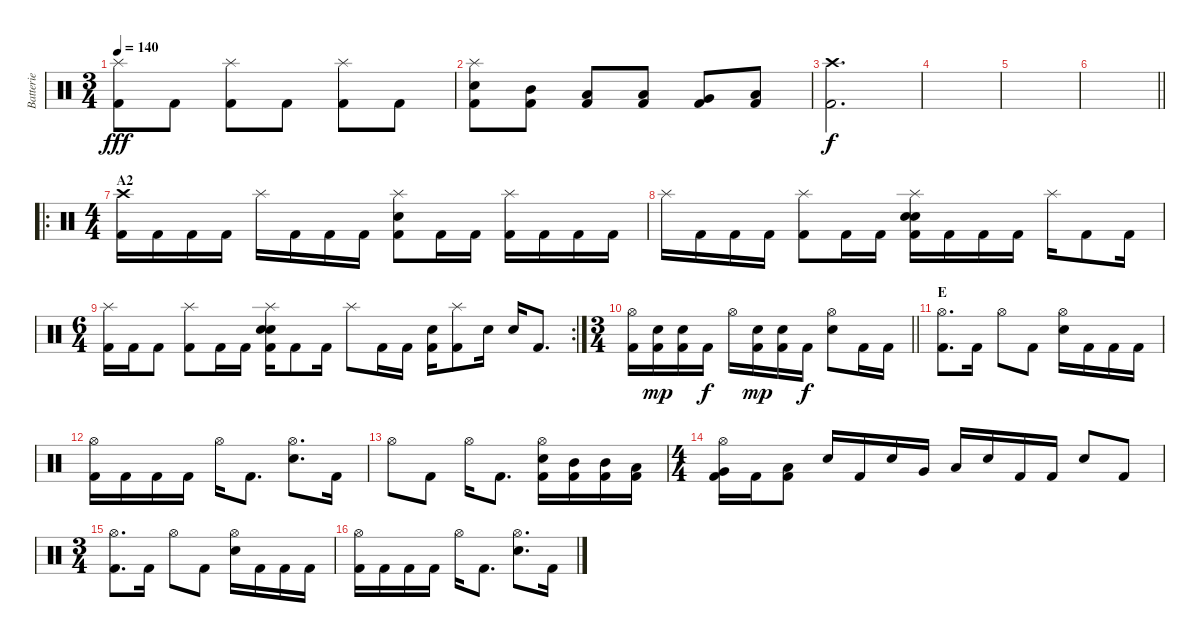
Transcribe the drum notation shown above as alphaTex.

\track ("Batterie" "Batterie") {instrument percussion}
\staff {score}
\articulation defaults
\ts (3 4)
\tempo 140
\clef neutral
\ks c
("Splash (hit)" "Kick (hit) 2").8{dy fff} "Kick (hit) 2".8 ("Splash (hit)" "Kick (hit) 2").8 "Kick (hit) 2".8 ("Splash (hit)" "Kick (hit) 2").8 "Kick (hit) 2".8 |
("Splash (hit)" "Electric Snare (hit)" "Kick (hit) 2").8 ("Mid Tom (hit)" "Kick (hit) 2").8 ("Low Tom (hit)" "Kick (hit) 2").8 ("Low Tom (hit)" "Kick (hit) 2").8 ("Very Low Tom (hit)" "Kick (hit) 2").8 ("Low Floor Tom (hit)" "Kick (hit) 2").8 |
("Crash high (hit)" "Kick (hit) 2").2{d dy f} |
|
|
\barLineRight lightlight
|
\ro
\ts (4 4)
\section ("" "A2")
("Crash high (hit)" "Kick (hit) 2").16 "Kick (hit) 2".16 "Kick (hit) 2".16 "Kick (hit) 2".16 "Splash (hit)".16 "Kick (hit) 2".16 "Kick (hit) 2".16 "Kick (hit) 2".16 ("Splash (hit)" "Electric Snare (hit)" "Kick (hit) 2").8 "Kick (hit) 2".16 "Kick (hit) 2".16 ("Splash (hit)" "Kick (hit) 2").16 "Kick (hit) 2".16 "Kick (hit) 2".16 "Kick (hit) 2".16 |
"Splash (hit)".16 "Kick (hit) 2".16 "Kick (hit) 2".16 "Kick (hit) 2".16 ("Splash (hit)" "Kick (hit) 2").8 "Kick (hit) 2".16 "Kick (hit) 2".16 ("Splash (hit)" "Electric Snare (hit)" "Electric Snare (hit)" "Kick (hit) 2").16 "Kick (hit) 2".16 "Kick (hit) 2".16 "Kick (hit) 2".16 "Splash (hit)".16 "Kick (hit) 2".8 "Kick (hit) 2".16 |
\rc 2
\ts (6 4)
("Splash (hit)" "Kick (hit) 2").16 "Kick (hit) 2".16 "Kick (hit) 2".8 ("Splash (hit)" "Kick (hit) 2").8 "Kick (hit) 2".16 "Kick (hit) 2".16 ("Splash (hit)" "Electric Snare (hit)" "Electric Snare (hit)" "Kick (hit) 2").16 "Kick (hit) 2".8 "Kick (hit) 2".16 "Splash (hit)".8 "Kick (hit) 2".16 "Kick (hit) 2".16 ("Electric Snare (hit)" "Kick (hit) 2").16 ("Splash (hit)" "Kick (hit) 2").8 "Electric Snare (hit)".16 "Electric Snare (hit)".16 "Kick (hit) 2".8{d} |
\ts (3 4)
\barLineRight lightlight
("Hi-Hat (open)" "Kick (hit) 2").16 ("Electric Snare (hit)" "Kick (hit) 2").16{dy mp} ("Electric Snare (hit)" "Kick (hit) 2").16 "Kick (hit) 2".16{dy f} "Hi-Hat (open)".16 ("Electric Snare (hit)" "Kick (hit) 2").16{dy mp} ("Electric Snare (hit)" "Kick (hit) 2").16 "Kick (hit) 2".16{dy f} ("Hi-Hat (open)" "Electric Snare (hit)").8 "Kick (hit) 2".16 "Kick (hit) 2".16 |
\section ("" "E")
("Hi-Hat (open)" "Kick (hit) 2").8{d} "Kick (hit) 2".16 "Hi-Hat (open)".8 "Kick (hit) 2".8 ("Hi-Hat (open)" "Electric Snare (hit)").16 "Kick (hit) 2".16 "Kick (hit) 2".16 "Kick (hit) 2".16 |
("Hi-Hat (open)" "Kick (hit) 2").16 "Kick (hit) 2".16 "Kick (hit) 2".16 "Kick (hit) 2".16 "Hi-Hat (open)".16 "Kick (hit) 2".8{d} ("Hi-Hat (open)" "Electric Snare (hit)").8{d} "Kick (hit) 2".16 |
"Hi-Hat (open)".8 "Kick (hit) 2".8 "Hi-Hat (open)".16 "Kick (hit) 2".8{d} ("Hi-Hat (open)" "Electric Snare (hit)" "Kick (hit) 2").16 ("Mid Tom (hit)" "Kick (hit) 2").16 ("Mid Tom (hit)" "Kick (hit) 2").16 ("Low Tom (hit)" "Kick (hit) 2").16 |
\ts (4 4)
("Hi-Hat (open)" "Very Low Tom (hit)" "Kick (hit) 2").16 "Kick (hit) 2".16 ("Low Floor Tom (hit)" "Kick (hit) 2").8 "Electric Snare (hit)".16 "Kick (hit) 2".16 "Electric Snare (hit)".16 "Very Low Tom (hit)".16 "Low Floor Tom (hit)".16 "Electric Snare (hit)".16 "Kick (hit) 2".16 "Kick (hit) 2".16 "Electric Snare (hit)".8 "Kick (hit) 2".8 |
\ts (3 4)
("Hi-Hat (open)" "Kick (hit) 2").8{d} "Kick (hit) 2".16 "Hi-Hat (open)".8 "Kick (hit) 2".8 ("Hi-Hat (open)" "Electric Snare (hit)").16 "Kick (hit) 2".16 "Kick (hit) 2".16 "Kick (hit) 2".16 |
("Hi-Hat (open)" "Kick (hit) 2").16 "Kick (hit) 2".16 "Kick (hit) 2".16 "Kick (hit) 2".16 "Hi-Hat (open)".16 "Kick (hit) 2".8{d} ("Hi-Hat (open)" "Electric Snare (hit)").8{d} "Kick (hit) 2".16
